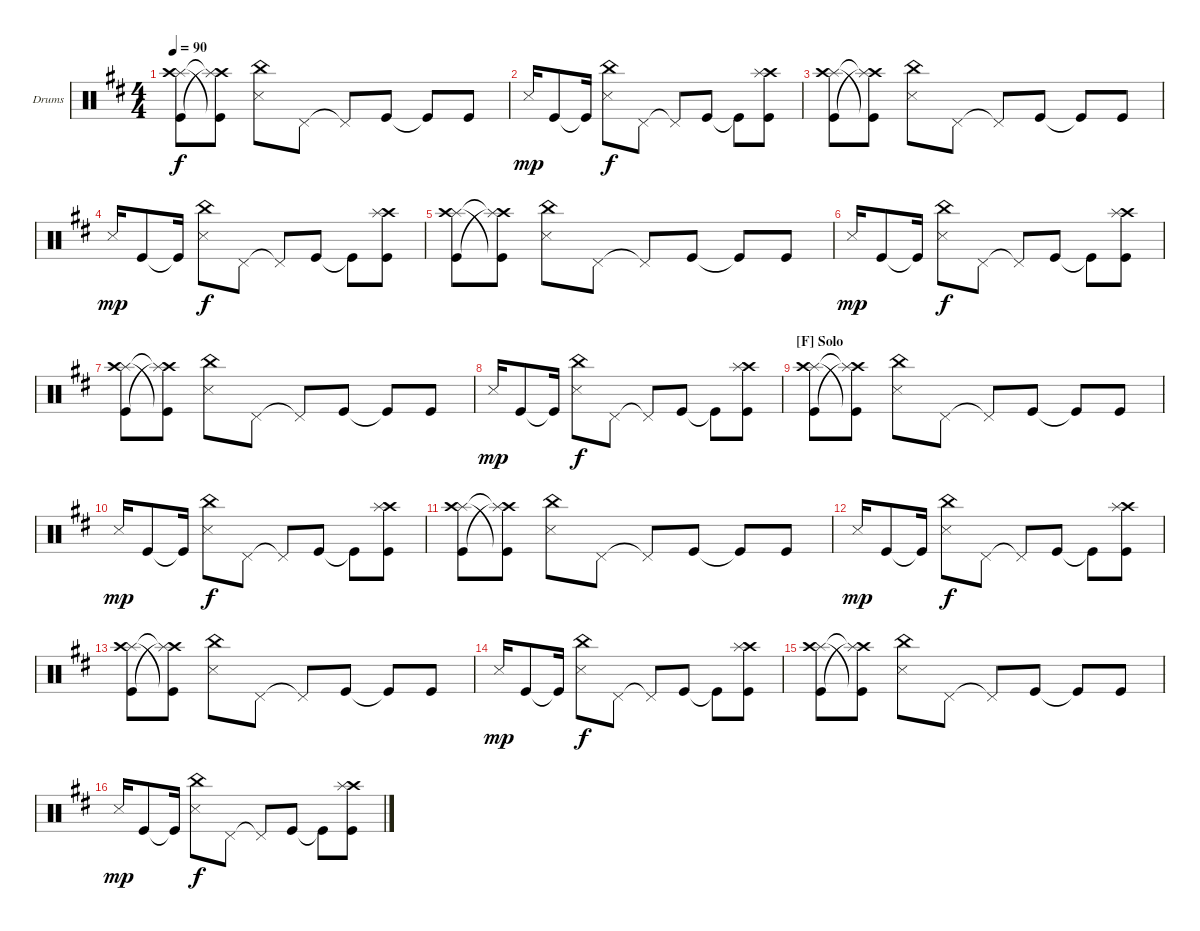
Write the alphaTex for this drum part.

\defaultSystemsLayout 4
\bracketExtendMode groupsimilarinstruments
\firstSystemTrackNameOrientation horizontal
\otherSystemsTrackNameOrientation horizontal
\track ("Bateria" "Drums") {multiBarRest instrument percussion}
\staff {score}
\articulation defaults
\ts (4 4)
\tempo 90
\clef neutral
\ks d
("Splash (hit)" "Crash high (hit)" "Kick (hit)").8{dy f} ("Kick (hit)"{t} "Crash high (hit)"{t} "Splash (hit)"{t}).8 ("China (hit)" "Snare (side stick) 3").8 "Pedal Hi-Hat (hit)".8 "Pedal Hi-Hat (hit)"{t}.8 "Kick (hit)".8 "Kick (hit)"{t}.8 "Kick (hit)".8 |
"Snare (side stick) 3".16{dy mp} "Kick (hit)".8 "Kick (hit)"{t}.16 ("China (hit)" "Snare (side stick) 3").8{dy f} "Pedal Hi-Hat (hit)".8 "Pedal Hi-Hat (hit)"{t}.8 "Kick (hit)".8 "Kick (hit)"{t}.8 ("Kick (hit)" "Crash high (hit)" "Splash (hit)").8 |
("Splash (hit)" "Crash high (hit)" "Kick (hit)").8 ("Kick (hit)"{t} "Crash high (hit)"{t} "Splash (hit)"{t}).8 ("China (hit)" "Snare (side stick) 3").8 "Pedal Hi-Hat (hit)".8 "Pedal Hi-Hat (hit)"{t}.8 "Kick (hit)".8 "Kick (hit)"{t}.8 "Kick (hit)".8 |
"Snare (side stick) 3".16{dy mp} "Kick (hit)".8 "Kick (hit)"{t}.16 ("China (hit)" "Snare (side stick) 3").8{dy f} "Pedal Hi-Hat (hit)".8 "Pedal Hi-Hat (hit)"{t}.8 "Kick (hit)".8 "Kick (hit)"{t}.8 ("Kick (hit)" "Crash high (hit)" "Splash (hit)").8 |
("Splash (hit)" "Crash high (hit)" "Kick (hit)").8 ("Kick (hit)"{t} "Crash high (hit)"{t} "Splash (hit)"{t}).8 ("China (hit)" "Snare (side stick) 3").8 "Pedal Hi-Hat (hit)".8 "Pedal Hi-Hat (hit)"{t}.8 "Kick (hit)".8 "Kick (hit)"{t}.8 "Kick (hit)".8 |
"Snare (side stick) 3".16{dy mp} "Kick (hit)".8 "Kick (hit)"{t}.16 ("China (hit)" "Snare (side stick) 3").8{dy f} "Pedal Hi-Hat (hit)".8 "Pedal Hi-Hat (hit)"{t}.8 "Kick (hit)".8 "Kick (hit)"{t}.8 ("Kick (hit)" "Crash high (hit)" "Splash (hit)").8 |
("Splash (hit)" "Crash high (hit)" "Kick (hit)").8 ("Kick (hit)"{t} "Crash high (hit)"{t} "Splash (hit)"{t}).8 ("China (hit)" "Snare (side stick) 3").8 "Pedal Hi-Hat (hit)".8 "Pedal Hi-Hat (hit)"{t}.8 "Kick (hit)".8 "Kick (hit)"{t}.8 "Kick (hit)".8 |
"Snare (side stick) 3".16{dy mp} "Kick (hit)".8 "Kick (hit)"{t}.16 ("China (hit)" "Snare (side stick) 3").8{dy f} "Pedal Hi-Hat (hit)".8 "Pedal Hi-Hat (hit)"{t}.8 "Kick (hit)".8 "Kick (hit)"{t}.8 ("Kick (hit)" "Crash high (hit)" "Splash (hit)").8 |
\section ("F" "Solo")
("Splash (hit)" "Crash high (hit)" "Kick (hit)").8 ("Kick (hit)"{t} "Crash high (hit)"{t} "Splash (hit)"{t}).8 ("China (hit)" "Snare (side stick) 3").8 "Pedal Hi-Hat (hit)".8 "Pedal Hi-Hat (hit)"{t}.8 "Kick (hit)".8 "Kick (hit)"{t}.8 "Kick (hit)".8 |
"Snare (side stick) 3".16{dy mp} "Kick (hit)".8 "Kick (hit)"{t}.16 ("China (hit)" "Snare (side stick) 3").8{dy f} "Pedal Hi-Hat (hit)".8 "Pedal Hi-Hat (hit)"{t}.8 "Kick (hit)".8 "Kick (hit)"{t}.8 ("Kick (hit)" "Crash high (hit)" "Splash (hit)").8 |
("Splash (hit)" "Crash high (hit)" "Kick (hit)").8 ("Kick (hit)"{t} "Crash high (hit)"{t} "Splash (hit)"{t}).8 ("China (hit)" "Snare (side stick) 3").8 "Pedal Hi-Hat (hit)".8 "Pedal Hi-Hat (hit)"{t}.8 "Kick (hit)".8 "Kick (hit)"{t}.8 "Kick (hit)".8 |
"Snare (side stick) 3".16{dy mp} "Kick (hit)".8 "Kick (hit)"{t}.16 ("China (hit)" "Snare (side stick) 3").8{dy f} "Pedal Hi-Hat (hit)".8 "Pedal Hi-Hat (hit)"{t}.8 "Kick (hit)".8 "Kick (hit)"{t}.8 ("Kick (hit)" "Crash high (hit)" "Splash (hit)").8 |
("Splash (hit)" "Crash high (hit)" "Kick (hit)").8 ("Kick (hit)"{t} "Crash high (hit)"{t} "Splash (hit)"{t}).8 ("China (hit)" "Snare (side stick) 3").8 "Pedal Hi-Hat (hit)".8 "Pedal Hi-Hat (hit)"{t}.8 "Kick (hit)".8 "Kick (hit)"{t}.8 "Kick (hit)".8 |
"Snare (side stick) 3".16{dy mp} "Kick (hit)".8 "Kick (hit)"{t}.16 ("China (hit)" "Snare (side stick) 3").8{dy f} "Pedal Hi-Hat (hit)".8 "Pedal Hi-Hat (hit)"{t}.8 "Kick (hit)".8 "Kick (hit)"{t}.8 ("Kick (hit)" "Crash high (hit)" "Splash (hit)").8 |
("Splash (hit)" "Crash high (hit)" "Kick (hit)").8 ("Kick (hit)"{t} "Crash high (hit)"{t} "Splash (hit)"{t}).8 ("China (hit)" "Snare (side stick) 3").8 "Pedal Hi-Hat (hit)".8 "Pedal Hi-Hat (hit)"{t}.8 "Kick (hit)".8 "Kick (hit)"{t}.8 "Kick (hit)".8 |
"Snare (side stick) 3".16{dy mp} "Kick (hit)".8 "Kick (hit)"{t}.16 ("China (hit)" "Snare (side stick) 3").8{dy f} "Pedal Hi-Hat (hit)".8 "Pedal Hi-Hat (hit)"{t}.8 "Kick (hit)".8 "Kick (hit)"{t}.8 ("Kick (hit)" "Crash high (hit)" "Splash (hit)").8
